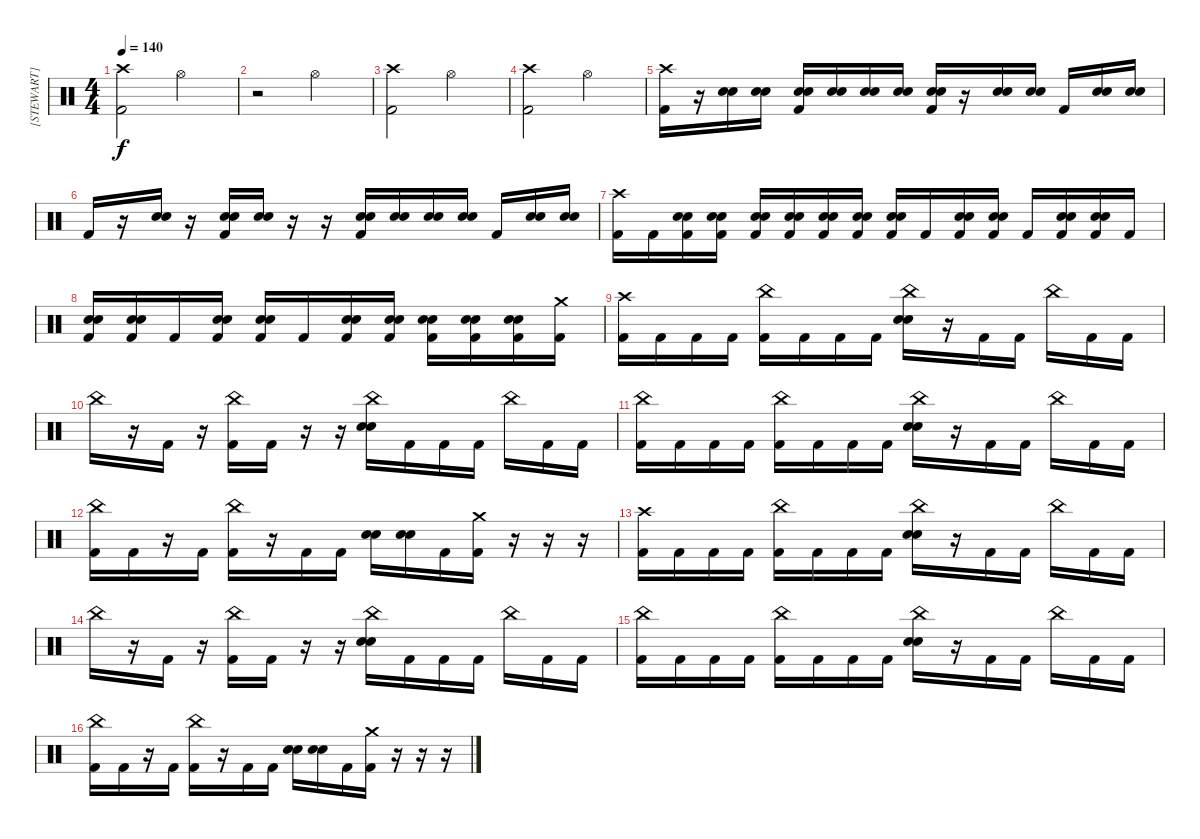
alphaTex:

\track ("[STEWART]" "[STEWART]") {instrument percussion}
\staff {score}
\articulation defaults
\ts (4 4)
\tempo 140
\clef neutral
\ks c
("Crash high (hit)" "Kick (hit) 2").2{dy f} "Hi-Hat (open)".2 |
r.2 "Hi-Hat (open)".2 |
("Crash high (hit)" "Kick (hit) 2").2 "Hi-Hat (open)".2 |
("Crash high (hit)" "Kick (hit) 2").2 "Hi-Hat (open)".2 |
("Crash high (hit)" "Kick (hit) 2").16 r.16 ("Electric Snare (hit)" "Snare (hit) 2").16 ("Electric Snare (hit)" "Snare (hit) 2").16 ("Electric Snare (hit)" "Snare (hit) 2" "Kick (hit) 2").16 ("Electric Snare (hit)" "Snare (hit) 2").16 ("Electric Snare (hit)" "Snare (hit) 2").16 ("Electric Snare (hit)" "Snare (hit) 2").16 ("Electric Snare (hit)" "Snare (hit) 2" "Kick (hit) 2").16 r.16 ("Electric Snare (hit)" "Snare (hit) 2").16 ("Electric Snare (hit)" "Snare (hit) 2").16 "Kick (hit) 2".16 ("Electric Snare (hit)" "Snare (hit) 2").16 ("Electric Snare (hit)" "Snare (hit) 2").16 |
"Kick (hit) 2".16 r.16 ("Snare (hit) 2" "Electric Snare (hit)").16 r.16 ("Snare (hit) 2" "Electric Snare (hit)" "Kick (hit) 2").16 ("Snare (hit) 2" "Electric Snare (hit)").16 r.16 r.16 ("Snare (hit) 2" "Electric Snare (hit)" "Kick (hit) 2").16 ("Snare (hit) 2" "Electric Snare (hit)").16 ("Snare (hit) 2" "Electric Snare (hit)").16 ("Snare (hit) 2" "Electric Snare (hit)").16 "Kick (hit) 2".16 ("Snare (hit) 2" "Electric Snare (hit)").16 ("Snare (hit) 2" "Electric Snare (hit)").16 |
("Crash high (hit)" "Kick (hit) 2").16 "Kick (hit) 2".16 ("Snare (hit) 2" "Electric Snare (hit)" "Kick (hit) 2").16 ("Snare (hit) 2" "Electric Snare (hit)" "Kick (hit) 2").16 ("Snare (hit) 2" "Electric Snare (hit)" "Kick (hit) 2").16 ("Snare (hit) 2" "Electric Snare (hit)" "Kick (hit) 2").16 ("Snare (hit) 2" "Electric Snare (hit)" "Kick (hit) 2").16 ("Snare (hit) 2" "Electric Snare (hit)" "Kick (hit) 2").16 ("Snare (hit) 2" "Electric Snare (hit)" "Kick (hit) 2").16 "Kick (hit) 2".16 ("Snare (hit) 2" "Electric Snare (hit)" "Kick (hit) 2").16 ("Snare (hit) 2" "Electric Snare (hit)" "Kick (hit) 2").16 "Kick (hit) 2".16 ("Snare (hit) 2" "Electric Snare (hit)" "Kick (hit) 2").16 ("Snare (hit) 2" "Electric Snare (hit)" "Kick (hit) 2").16 "Kick (hit) 2".16 |
("Snare (hit) 2" "Electric Snare (hit)" "Kick (hit) 2").16 ("Snare (hit) 2" "Electric Snare (hit)" "Kick (hit) 2").16 "Kick (hit) 2".16 ("Snare (hit) 2" "Electric Snare (hit)" "Kick (hit) 2").16 ("Snare (hit) 2" "Electric Snare (hit)" "Kick (hit) 2").16 "Kick (hit) 2".16 ("Snare (hit) 2" "Electric Snare (hit)" "Kick (hit) 2").16 ("Snare (hit) 2" "Electric Snare (hit)" "Kick (hit) 2").16 ("Snare (hit) 2" "Electric Snare (hit)" "Kick (hit) 2").16 ("Snare (hit) 2" "Electric Snare (hit)" "Kick (hit) 2").16 ("Snare (hit) 2" "Electric Snare (hit)" "Kick (hit) 2").16 ("Crash medium (hit)" "Kick (hit) 2").16 |
("Crash high (hit)" "Kick (hit) 2").16 "Kick (hit) 2".16 "Kick (hit) 2".16 "Kick (hit) 2".16 ("China (hit)" "Kick (hit) 2").16 "Kick (hit) 2".16 "Kick (hit) 2".16 "Kick (hit) 2".16 ("China (hit)" "Electric Snare (hit)" "Snare (hit) 2").16 r.16 "Kick (hit) 2".16 "Kick (hit) 2".16 "China (hit)".16 "Kick (hit) 2".16 "Kick (hit) 2".16 |
"China (hit)".16 r.16 "Kick (hit) 2".16 r.16 ("China (hit)" "Kick (hit) 2").16 "Kick (hit) 2".16 r.16 r.16 ("China (hit)" "Electric Snare (hit)" "Snare (hit) 2").16 "Kick (hit) 2".16 "Kick (hit) 2".16 "Kick (hit) 2".16 "China (hit)".16 "Kick (hit) 2".16 "Kick (hit) 2".16 |
("China (hit)" "Kick (hit) 2").16 "Kick (hit) 2".16 "Kick (hit) 2".16 "Kick (hit) 2".16 ("China (hit)" "Kick (hit) 2").16 "Kick (hit) 2".16 "Kick (hit) 2".16 "Kick (hit) 2".16 ("China (hit)" "Electric Snare (hit)" "Snare (hit) 2").16 r.16 "Kick (hit) 2".16 "Kick (hit) 2".16 "China (hit)".16 "Kick (hit) 2".16 "Kick (hit) 2".16 |
("China (hit)" "Kick (hit) 2").16 "Kick (hit) 2".16 r.16 "Kick (hit) 2".16 ("China (hit)" "Kick (hit) 2").16 r.16 "Kick (hit) 2".16 "Kick (hit) 2".16 ("Electric Snare (hit)" "Snare (hit) 2").16 ("Electric Snare (hit)" "Snare (hit) 2").16 "Kick (hit) 2".16 ("Crash medium (hit)" "Kick (hit) 2").16 r.16 r.16 r.16 |
("Crash high (hit)" "Kick (hit) 2").16 "Kick (hit) 2".16 "Kick (hit) 2".16 "Kick (hit) 2".16 ("China (hit)" "Kick (hit) 2").16 "Kick (hit) 2".16 "Kick (hit) 2".16 "Kick (hit) 2".16 ("China (hit)" "Electric Snare (hit)" "Snare (hit) 2").16 r.16 "Kick (hit) 2".16 "Kick (hit) 2".16 "China (hit)".16 "Kick (hit) 2".16 "Kick (hit) 2".16 |
"China (hit)".16 r.16 "Kick (hit) 2".16 r.16 ("China (hit)" "Kick (hit) 2").16 "Kick (hit) 2".16 r.16 r.16 ("China (hit)" "Electric Snare (hit)" "Snare (hit) 2").16 "Kick (hit) 2".16 "Kick (hit) 2".16 "Kick (hit) 2".16 "China (hit)".16 "Kick (hit) 2".16 "Kick (hit) 2".16 |
("China (hit)" "Kick (hit) 2").16 "Kick (hit) 2".16 "Kick (hit) 2".16 "Kick (hit) 2".16 ("China (hit)" "Kick (hit) 2").16 "Kick (hit) 2".16 "Kick (hit) 2".16 "Kick (hit) 2".16 ("China (hit)" "Electric Snare (hit)" "Snare (hit) 2").16 r.16 "Kick (hit) 2".16 "Kick (hit) 2".16 "China (hit)".16 "Kick (hit) 2".16 "Kick (hit) 2".16 |
("China (hit)" "Kick (hit) 2").16 "Kick (hit) 2".16 r.16 "Kick (hit) 2".16 ("China (hit)" "Kick (hit) 2").16 r.16 "Kick (hit) 2".16 "Kick (hit) 2".16 ("Electric Snare (hit)" "Snare (hit) 2").16 ("Electric Snare (hit)" "Snare (hit) 2").16 "Kick (hit) 2".16 ("Crash medium (hit)" "Kick (hit) 2").16 r.16 r.16 r.16
